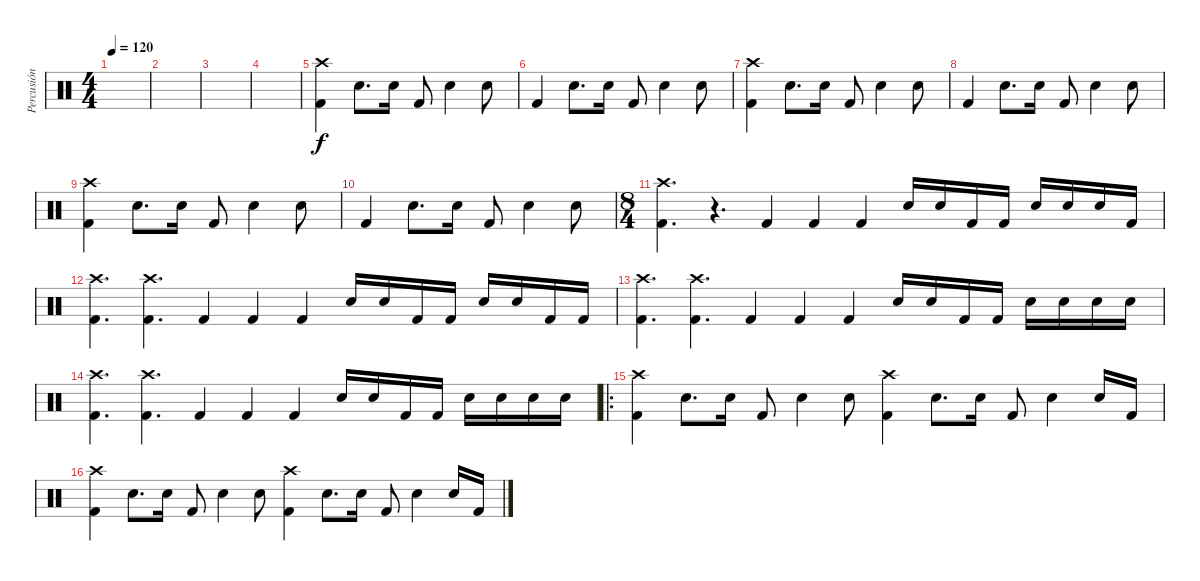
\track ("Percusión" "Percusión") {instrument percussion}
\staff {score}
\articulation defaults
\ts (4 4)
\tempo 120
\clef neutral
\ks c
|
|
|
|
("Crash high (hit)" "Kick (hit) 2").4 "Snare (hit) 2".8{d} "Snare (hit) 2".16 "Kick (hit) 2".8 "Snare (hit) 2".4 "Snare (hit) 2".8 |
"Kick (hit) 2".4 "Snare (hit) 2".8{d} "Snare (hit) 2".16 "Kick (hit) 2".8 "Snare (hit) 2".4 "Snare (hit) 2".8 |
("Crash high (hit)" "Kick (hit) 2").4 "Snare (hit) 2".8{d} "Snare (hit) 2".16 "Kick (hit) 2".8 "Snare (hit) 2".4 "Snare (hit) 2".8 |
"Kick (hit) 2".4 "Snare (hit) 2".8{d} "Snare (hit) 2".16 "Kick (hit) 2".8 "Snare (hit) 2".4 "Snare (hit) 2".8 |
("Crash high (hit)" "Kick (hit) 2").4 "Snare (hit) 2".8{d} "Snare (hit) 2".16 "Kick (hit) 2".8 "Snare (hit) 2".4 "Snare (hit) 2".8 |
"Kick (hit) 2".4 "Snare (hit) 2".8{d} "Snare (hit) 2".16 "Kick (hit) 2".8 "Snare (hit) 2".4 "Snare (hit) 2".8 |
\ts (8 4)
("Crash high (hit)" "Kick (hit) 2").4{d} r.4{d} "Kick (hit) 2".4 "Kick (hit) 2".4 "Kick (hit) 2".4 "Snare (hit) 2".16 "Snare (hit) 2".16 "Kick (hit) 2".16 "Kick (hit) 2".16 "Snare (hit) 2".16 "Snare (hit) 2".16 "Snare (hit) 2".16 "Kick (hit) 2".16 |
("Crash high (hit)" "Kick (hit) 2").4{d} ("Crash high (hit)" "Kick (hit) 2").4{d} "Kick (hit) 2".4 "Kick (hit) 2".4 "Kick (hit) 2".4 "Snare (hit) 2".16 "Snare (hit) 2".16 "Kick (hit) 2".16 "Kick (hit) 2".16 "Snare (hit) 2".16 "Snare (hit) 2".16 "Kick (hit) 2".16 "Kick (hit) 2".16 |
("Crash high (hit)" "Kick (hit) 2").4{d} ("Crash high (hit)" "Kick (hit) 2").4{d} "Kick (hit) 2".4 "Kick (hit) 2".4 "Kick (hit) 2".4 "Snare (hit) 2".16 "Snare (hit) 2".16 "Kick (hit) 2".16 "Kick (hit) 2".16 "Snare (hit) 2".16 "Snare (hit) 2".16 "Snare (hit) 2".16 "Snare (hit) 2".16 |
("Crash high (hit)" "Kick (hit) 2").4{d} ("Crash high (hit)" "Kick (hit) 2").4{d} "Kick (hit) 2".4 "Kick (hit) 2".4 "Kick (hit) 2".4 "Snare (hit) 2".16 "Snare (hit) 2".16 "Kick (hit) 2".16 "Kick (hit) 2".16 "Snare (hit) 2".16 "Snare (hit) 2".16 "Snare (hit) 2".16 "Snare (hit) 2".16 |
\ro
("Crash high (hit)" "Kick (hit) 2").4 "Snare (hit) 2".8{d} "Snare (hit) 2".16 "Kick (hit) 2".8 "Snare (hit) 2".4 "Snare (hit) 2".8 ("Crash high (hit)" "Kick (hit) 2").4 "Snare (hit) 2".8{d} "Snare (hit) 2".16 "Kick (hit) 2".8 "Snare (hit) 2".4 "Snare (hit) 2".16 "Kick (hit) 2".16 |
("Crash high (hit)" "Kick (hit) 2").4 "Snare (hit) 2".8{d} "Snare (hit) 2".16 "Kick (hit) 2".8 "Snare (hit) 2".4 "Snare (hit) 2".8 ("Crash high (hit)" "Kick (hit) 2").4 "Snare (hit) 2".8{d} "Snare (hit) 2".16 "Kick (hit) 2".8 "Snare (hit) 2".4 "Snare (hit) 2".16 "Kick (hit) 2".16
